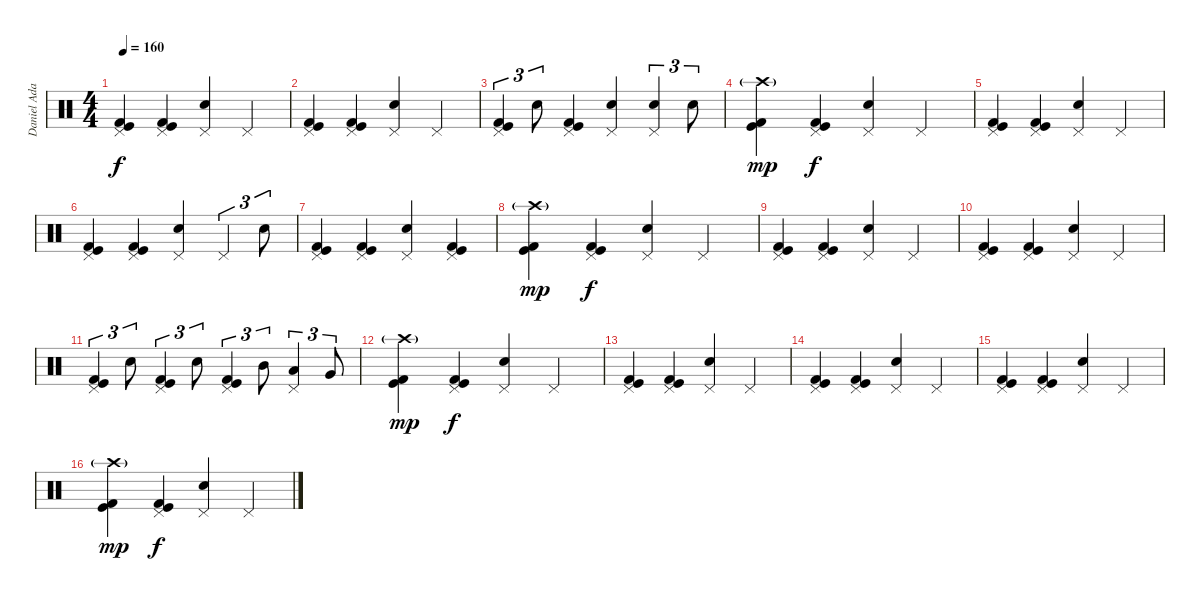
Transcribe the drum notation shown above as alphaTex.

\track ("Daniel Adair" "Daniel Ada") {instrument percussion}
\staff {score}
\articulation defaults
\ts (4 4)
\tempo 160
\clef neutral
\ks c
("Pedal Hi-Hat (hit)" "Kick (hit)" "Kick (hit) 2").4{dy f} ("Pedal Hi-Hat (hit)" "Kick (hit)" "Kick (hit) 2").4 ("Pedal Hi-Hat (hit)" "Electric Snare (hit)").4 "Pedal Hi-Hat (hit)".4 |
("Pedal Hi-Hat (hit)" "Kick (hit)" "Kick (hit) 2").4 ("Pedal Hi-Hat (hit)" "Kick (hit)" "Kick (hit) 2").4 ("Pedal Hi-Hat (hit)" "Electric Snare (hit)").4 "Pedal Hi-Hat (hit)".4 |
("Pedal Hi-Hat (hit)" "Kick (hit)" "Kick (hit) 2").4{tu (3 2)} "Electric Snare (hit)".8{tu (3 2)} ("Pedal Hi-Hat (hit)" "Kick (hit)" "Kick (hit) 2").4 ("Pedal Hi-Hat (hit)" "Electric Snare (hit)").4 ("Pedal Hi-Hat (hit)" "Electric Snare (hit)").4{tu (3 2)} "Electric Snare (hit)".8{tu (3 2)} |
("Crash high (hit)"{g} "Kick (hit)" "Kick (hit) 2").4{dy mp} ("Pedal Hi-Hat (hit)" "Kick (hit)" "Kick (hit) 2").4{dy f} ("Pedal Hi-Hat (hit)" "Electric Snare (hit)").4 "Pedal Hi-Hat (hit)".4 |
("Pedal Hi-Hat (hit)" "Kick (hit)" "Kick (hit) 2").4 ("Pedal Hi-Hat (hit)" "Kick (hit)" "Kick (hit) 2").4 ("Pedal Hi-Hat (hit)" "Electric Snare (hit)").4 "Pedal Hi-Hat (hit)".4 |
("Pedal Hi-Hat (hit)" "Kick (hit)" "Kick (hit) 2").4 ("Pedal Hi-Hat (hit)" "Kick (hit)" "Kick (hit) 2").4 ("Pedal Hi-Hat (hit)" "Electric Snare (hit)").4 "Pedal Hi-Hat (hit)".4{tu (3 2)} "Electric Snare (hit)".8{tu (3 2)} |
("Pedal Hi-Hat (hit)" "Kick (hit)" "Kick (hit) 2").4 ("Pedal Hi-Hat (hit)" "Kick (hit)" "Kick (hit) 2").4 ("Pedal Hi-Hat (hit)" "Electric Snare (hit)").4 ("Pedal Hi-Hat (hit)" "Kick (hit)" "Kick (hit) 2").4 |
("Crash high (hit)"{g} "Kick (hit)" "Kick (hit) 2").4{dy mp} ("Pedal Hi-Hat (hit)" "Kick (hit)" "Kick (hit) 2").4{dy f} ("Pedal Hi-Hat (hit)" "Electric Snare (hit)").4 "Pedal Hi-Hat (hit)".4 |
("Pedal Hi-Hat (hit)" "Kick (hit)" "Kick (hit) 2").4 ("Pedal Hi-Hat (hit)" "Kick (hit)" "Kick (hit) 2").4 ("Pedal Hi-Hat (hit)" "Electric Snare (hit)").4 "Pedal Hi-Hat (hit)".4 |
("Pedal Hi-Hat (hit)" "Kick (hit)" "Kick (hit) 2").4 ("Pedal Hi-Hat (hit)" "Kick (hit)" "Kick (hit) 2").4 ("Pedal Hi-Hat (hit)" "Electric Snare (hit)").4 "Pedal Hi-Hat (hit)".4 |
("Pedal Hi-Hat (hit)" "Kick (hit)" "Kick (hit) 2").4{tu (3 2)} "Electric Snare (hit)".8{tu (3 2)} ("Pedal Hi-Hat (hit)" "Kick (hit)" "Kick (hit) 2").4{tu (3 2)} "Electric Snare (hit)".8{tu (3 2)} ("Pedal Hi-Hat (hit)" "Kick (hit)" "Kick (hit) 2").4{tu (3 2)} "Mid Tom (hit)".8{tu (3 2)} ("Pedal Hi-Hat (hit)" "Low Tom (hit)").4{tu (3 2)} "Very Low Tom (hit)".8{tu (3 2)} |
("Crash high (hit)"{g} "Kick (hit)" "Kick (hit) 2").4{dy mp volume 8} ("Pedal Hi-Hat (hit)" "Kick (hit)" "Kick (hit) 2").4{dy f} ("Pedal Hi-Hat (hit)" "Electric Snare (hit)").4 "Pedal Hi-Hat (hit)".4 |
("Pedal Hi-Hat (hit)" "Kick (hit)" "Kick (hit) 2").4 ("Pedal Hi-Hat (hit)" "Kick (hit)" "Kick (hit) 2").4 ("Pedal Hi-Hat (hit)" "Electric Snare (hit)").4 "Pedal Hi-Hat (hit)".4 |
("Pedal Hi-Hat (hit)" "Kick (hit)" "Kick (hit) 2").4 ("Pedal Hi-Hat (hit)" "Kick (hit)" "Kick (hit) 2").4 ("Pedal Hi-Hat (hit)" "Electric Snare (hit)").4 "Pedal Hi-Hat (hit)".4 |
("Pedal Hi-Hat (hit)" "Kick (hit)" "Kick (hit) 2").4 ("Pedal Hi-Hat (hit)" "Kick (hit)" "Kick (hit) 2").4 ("Pedal Hi-Hat (hit)" "Electric Snare (hit)").4 "Pedal Hi-Hat (hit)".4 |
("Crash high (hit)"{g} "Kick (hit)" "Kick (hit) 2").4{dy mp volume 0} ("Pedal Hi-Hat (hit)" "Kick (hit)" "Kick (hit) 2").4{dy f} ("Pedal Hi-Hat (hit)" "Electric Snare (hit)").4 "Pedal Hi-Hat (hit)".4
